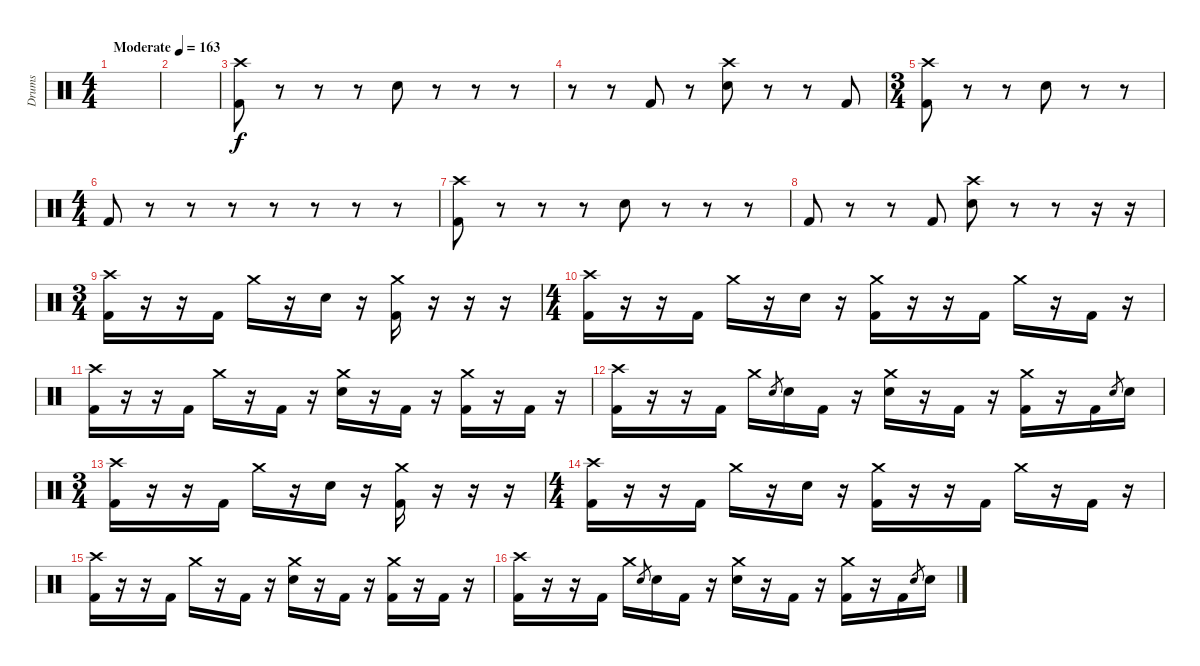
\track ("Drums" "Drums") {instrument percussion}
\staff {score}
\articulation defaults
\ts (4 4)
\tempo (163 "Moderate")
\clef neutral
\ks c
|
|
("Kick (hit) 2" "Crash high (hit)").8 r.8 r.8 r.8 "Electric Snare (hit)".8 r.8 r.8 r.8 |
r.8 r.8 "Kick (hit) 2".8 r.8 ("Crash high (hit)" "Electric Snare (hit)").8 r.8 r.8 "Kick (hit) 2".8 |
\ts (3 4)
("Kick (hit) 2" "Crash high (hit)").8 r.8 r.8 "Electric Snare (hit)".8 r.8 r.8 |
\ts (4 4)
"Kick (hit) 2".8 r.8 r.8 r.8 r.8 r.8 r.8 r.8 |
("Crash high (hit)" "Kick (hit) 2").8 r.8 r.8 r.8 "Electric Snare (hit)".8 r.8 r.8 r.8 |
"Kick (hit) 2".8 r.8 r.8 "Kick (hit) 2".8 ("Electric Snare (hit)" "Crash high (hit)").8 r.8 r.8 r.16 r.16 |
\ts (3 4)
("Kick (hit) 2" "Crash high (hit)").16{volume 16} r.16 r.16 "Kick (hit) 2".16 "Crash medium (hit)".16 r.16 "Electric Snare (hit)".16 r.16 ("Kick (hit) 2" "Crash medium (hit)").16 r.16 r.16 r.16 |
\ts (4 4)
("Kick (hit) 2" "Crash high (hit)").16 r.16 r.16 "Kick (hit) 2".16 "Crash medium (hit)".16 r.16 "Electric Snare (hit)".16 r.16 ("Kick (hit) 2" "Crash medium (hit)").16 r.16 r.16 "Kick (hit) 2".16 "Crash medium (hit)".16 r.16 "Kick (hit) 2".16 r.16 |
("Crash high (hit)" "Kick (hit) 2").16 r.16 r.16 "Kick (hit) 2".16 "Crash medium (hit)".16 r.16 "Kick (hit) 2".16 r.16 ("Electric Snare (hit)" "Crash medium (hit)").16 r.16 "Kick (hit) 2".16 r.16 ("Kick (hit) 2" "Crash medium (hit)").16 r.16 "Kick (hit) 2".16 r.16 |
("Crash high (hit)" "Kick (hit) 2").16 r.16 r.16 "Kick (hit) 2".16 "Crash medium (hit)".16 "Electric Snare (hit)".8{gr} "Electric Snare (hit)".16 "Kick (hit) 2".16 r.16 ("Electric Snare (hit)" "Crash medium (hit)").16 r.16 "Kick (hit) 2".16 r.16 ("Crash medium (hit)" "Kick (hit) 2").16 r.16 "Kick (hit) 2".16 "Electric Snare (hit)".8{gr} "Electric Snare (hit)".16 |
\ts (3 4)
("Kick (hit) 2" "Crash high (hit)").16 r.16 r.16 "Kick (hit) 2".16 "Crash medium (hit)".16 r.16 "Electric Snare (hit)".16 r.16 ("Kick (hit) 2" "Crash medium (hit)").16 r.16 r.16 r.16 |
\ts (4 4)
("Kick (hit) 2" "Crash high (hit)").16 r.16 r.16 "Kick (hit) 2".16 "Crash medium (hit)".16 r.16 "Electric Snare (hit)".16 r.16 ("Kick (hit) 2" "Crash medium (hit)").16 r.16 r.16 "Kick (hit) 2".16 "Crash medium (hit)".16 r.16 "Kick (hit) 2".16 r.16 |
("Crash high (hit)" "Kick (hit) 2").16 r.16 r.16 "Kick (hit) 2".16 "Crash medium (hit)".16 r.16 "Kick (hit) 2".16 r.16 ("Electric Snare (hit)" "Crash medium (hit)").16 r.16 "Kick (hit) 2".16 r.16 ("Kick (hit) 2" "Crash medium (hit)").16 r.16 "Kick (hit) 2".16 r.16 |
("Crash high (hit)" "Kick (hit) 2").16 r.16 r.16 "Kick (hit) 2".16 "Crash medium (hit)".16 "Electric Snare (hit)".8{gr} "Electric Snare (hit)".16 "Kick (hit) 2".16 r.16 ("Electric Snare (hit)" "Crash medium (hit)").16 r.16 "Kick (hit) 2".16 r.16 ("Crash medium (hit)" "Kick (hit) 2").16 r.16 "Kick (hit) 2".16 "Electric Snare (hit)".8{gr} "Electric Snare (hit)".16
